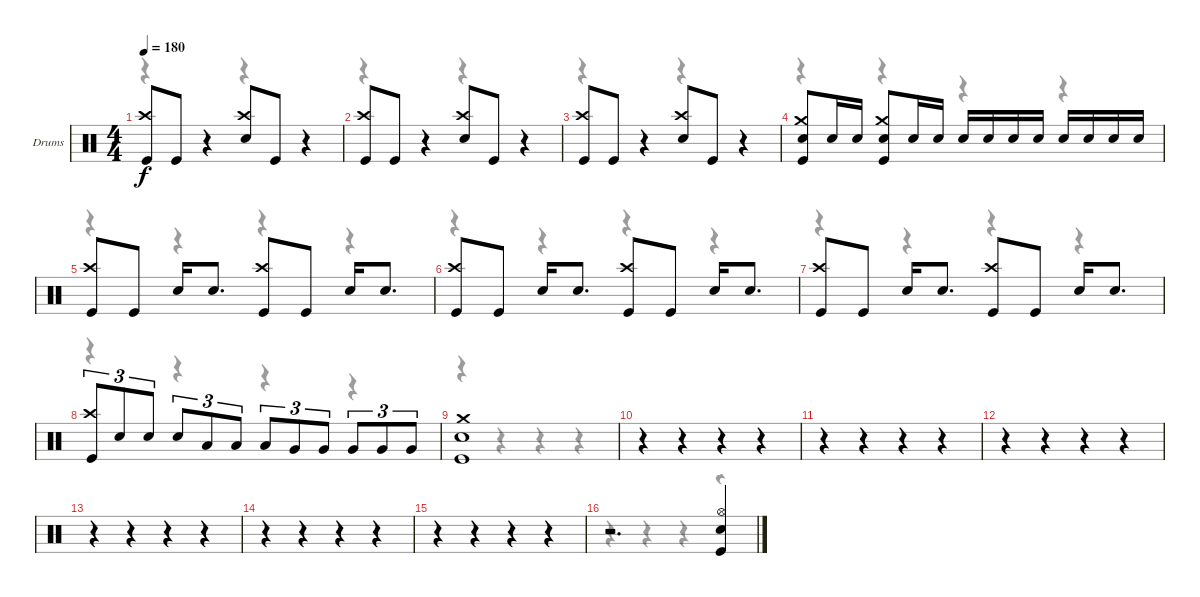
\bracketExtendMode groupsimilarinstruments
\firstSystemTrackNameOrientation horizontal
\otherSystemsTrackNameOrientation horizontal
\track ("Drumkit" "Drums") {instrument percussion}
\staff {score}
\articulation defaults
\voice
\ts (4 4)
\tempo 180
\clef neutral
\ks c
("Kick (hit)" "Crash high (hit)").8{dy f} "Kick (hit)".8 r.4 ("Snare (hit) 2" "Crash high (hit)").8 "Kick (hit)".8 r.4 |
("Kick (hit)" "Crash high (hit)").8 "Kick (hit)".8 r.4 ("Snare (hit) 2" "Crash high (hit)").8 "Kick (hit)".8 r.4 |
("Kick (hit)" "Crash high (hit)").8 "Kick (hit)".8 r.4 ("Snare (hit) 2" "Crash high (hit)").8 "Kick (hit)".8 r.4 |
("Crash medium (hit)" "Snare (hit) 2" "Kick (hit)").8 "Snare (hit) 2".16 "Snare (hit) 2".16 ("Crash medium (hit)" "Snare (hit) 2" "Kick (hit)").8 "Snare (hit) 2".16 "Snare (hit) 2".16 "Snare (hit) 2".16 "Snare (hit) 2".16 "Snare (hit) 2".16 "Snare (hit) 2".16 "Snare (hit) 2".16 "Snare (hit) 2".16 "Snare (hit) 2".16 "Snare (hit) 2".16 |
("Crash high (hit)" "Kick (hit)").8 "Kick (hit)".8 "Snare (hit) 2".16 "Snare (hit) 2".8{d} ("Crash high (hit)" "Kick (hit)").8 "Kick (hit)".8 "Snare (hit) 2".16 "Snare (hit) 2".8{d} |
("Crash high (hit)" "Kick (hit)").8 "Kick (hit)".8 "Snare (hit) 2".16 "Snare (hit) 2".8{d} ("Crash high (hit)" "Kick (hit)").8 "Kick (hit)".8 "Snare (hit) 2".16 "Snare (hit) 2".8{d} |
("Crash high (hit)" "Kick (hit)").8 "Kick (hit)".8 "Snare (hit) 2".16 "Snare (hit) 2".8{d} ("Crash high (hit)" "Kick (hit)").8 "Kick (hit)".8 "Snare (hit) 2".16 "Snare (hit) 2".8{d} |
("Crash high (hit)" "Kick (hit)").8{tu (3 2)} "Snare (hit) 2".8{tu (3 2)} "Snare (hit) 2".8{tu (3 2)} "Snare (hit) 2".8{tu (3 2)} "Low Tom (hit)".8{tu (3 2)} "Low Tom (hit)".8{tu (3 2)} "Low Tom (hit)".8{tu (3 2)} "Very Low Tom (hit)".8{tu (3 2)} "Very Low Tom (hit)".8{tu (3 2)} "Very Low Tom (hit)".8{tu (3 2)} "Very Low Tom (hit)".8{tu (3 2)} "Very Low Tom (hit)".8{tu (3 2)} |
("Crash medium (hit)" "Snare (hit) 2" "Kick (hit)").1 |
r.4 r.4 r.4 r.4 |
r.4 r.4 r.4 r.4 |
r.4 r.4 r.4 r.4 |
r.4 r.4 r.4 r.4 |
r.4 r.4 r.4 r.4 |
r.4 r.4 r.4 r.4 |
r.2{d} ("Hi-Hat (open)" "Snare (hit) 2" "Kick (hit)").4
\voice
\clef neutral
\ottava regular
\simile none
\ks c
r.4{dy mf} r.4 r.4 r.4 |
r.4 r.4 r.4 r.4 |
r.4 r.4 r.4 r.4 |
r.4 r.4 r.4 r.4 |
r.4 r.4 r.4 r.4 |
r.4 r.4 r.4 r.4 |
r.4 r.4 r.4 r.4 |
r.4 r.4 r.4 r.4 |
r.4 r.4 r.4 r.4 |
r.4 r.4 r.4 r.4 |
r.4 r.4 r.4 r.4 |
r.4 r.4 r.4 r.4 |
r.4 r.4 r.4 r.4 |
r.4 r.4 r.4 r.4 |
r.4 r.4 r.4 r.4 |
r.4 r.4 r.4 r.4
